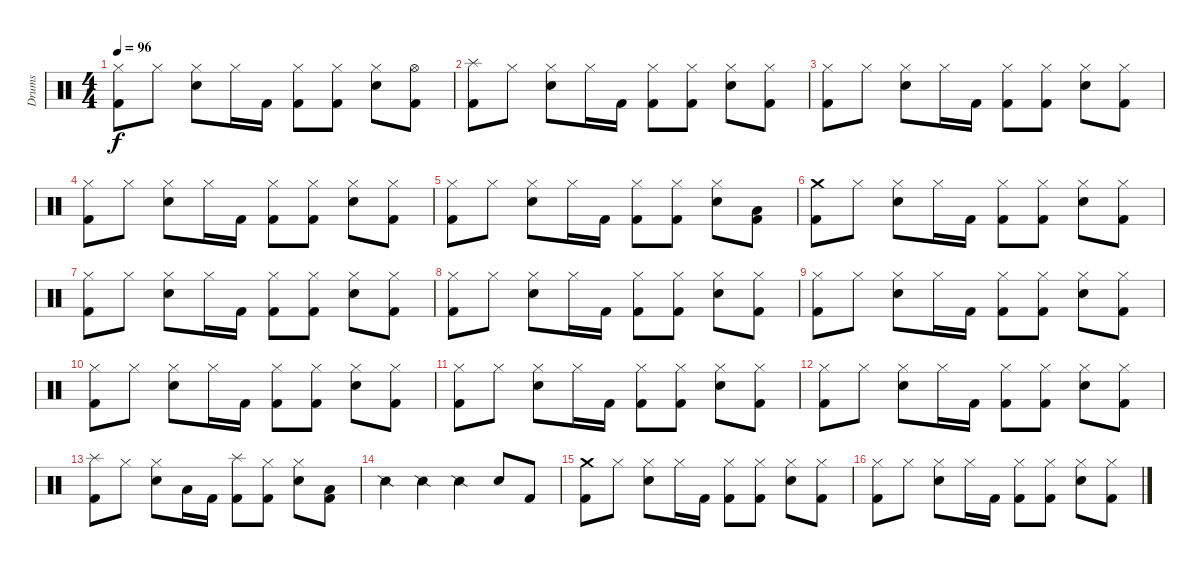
\track ("Drums" "Drums") {instrument percussion}
\staff {score}
\articulation defaults
\ts (4 4)
\tempo 96
\clef neutral
\ks c
("Hi-Hat (closed)" "Kick (hit) 2").8{dy f} "Hi-Hat (closed)".8 ("Hi-Hat (closed)" "Snare (hit) 2").8 "Hi-Hat (closed)".16 "Kick (hit) 2".16 ("Hi-Hat (closed)" "Kick (hit) 2").8 ("Hi-Hat (closed)" "Kick (hit) 2").8 ("Hi-Hat (closed)" "Snare (hit) 2").8 ("Hi-Hat (open)" "Kick (hit) 2").8 |
("Splash (hit)" "Kick (hit) 2").8 "Hi-Hat (closed)".8 ("Hi-Hat (closed)" "Snare (hit) 2").8 "Hi-Hat (closed)".16 "Kick (hit) 2".16 ("Hi-Hat (closed)" "Kick (hit) 2").8 ("Hi-Hat (closed)" "Kick (hit) 2").8 ("Hi-Hat (closed)" "Snare (hit) 2").8 ("Hi-Hat (closed)" "Kick (hit) 2").8 |
("Hi-Hat (closed)" "Kick (hit) 2").8 "Hi-Hat (closed)".8 ("Hi-Hat (closed)" "Snare (hit) 2").8 "Hi-Hat (closed)".16 "Kick (hit) 2".16 ("Hi-Hat (closed)" "Kick (hit) 2").8 ("Hi-Hat (closed)" "Kick (hit) 2").8 ("Hi-Hat (closed)" "Snare (hit) 2").8 ("Hi-Hat (closed)" "Kick (hit) 2").8 |
("Hi-Hat (closed)" "Kick (hit) 2").8 "Hi-Hat (closed)".8 ("Hi-Hat (closed)" "Snare (hit) 2").8 "Hi-Hat (closed)".16 "Kick (hit) 2".16 ("Hi-Hat (closed)" "Kick (hit) 2").8 ("Hi-Hat (closed)" "Kick (hit) 2").8 ("Hi-Hat (closed)" "Snare (hit) 2").8 ("Hi-Hat (closed)" "Kick (hit) 2").8 |
("Hi-Hat (closed)" "Kick (hit) 2").8 "Hi-Hat (closed)".8 ("Hi-Hat (closed)" "Snare (hit) 2").8 "Hi-Hat (closed)".16 "Kick (hit) 2".16 ("Hi-Hat (closed)" "Kick (hit) 2").8 ("Hi-Hat (closed)" "Kick (hit) 2").8 ("Hi-Hat (closed)" "Snare (hit) 2").8 ("Low Tom (hit)" "Kick (hit) 2").8 |
("Crash medium (hit)" "Kick (hit) 2").8 "Hi-Hat (closed)".8 ("Hi-Hat (closed)" "Snare (hit) 2").8 "Hi-Hat (closed)".16 "Kick (hit) 2".16 ("Hi-Hat (closed)" "Kick (hit) 2").8 ("Hi-Hat (closed)" "Kick (hit) 2").8 ("Hi-Hat (closed)" "Snare (hit) 2").8 ("Hi-Hat (closed)" "Kick (hit) 2").8 |
("Hi-Hat (closed)" "Kick (hit) 2").8 "Hi-Hat (closed)".8 ("Hi-Hat (closed)" "Snare (hit) 2").8 "Hi-Hat (closed)".16 "Kick (hit) 2".16 ("Hi-Hat (closed)" "Kick (hit) 2").8 ("Hi-Hat (closed)" "Kick (hit) 2").8 ("Hi-Hat (closed)" "Snare (hit) 2").8 ("Hi-Hat (closed)" "Kick (hit) 2").8 |
("Hi-Hat (closed)" "Kick (hit) 2").8 "Hi-Hat (closed)".8 ("Hi-Hat (closed)" "Snare (hit) 2").8 "Hi-Hat (closed)".16 "Kick (hit) 2".16 ("Hi-Hat (closed)" "Kick (hit) 2").8 ("Hi-Hat (closed)" "Kick (hit) 2").8 ("Hi-Hat (closed)" "Snare (hit) 2").8 ("Hi-Hat (closed)" "Kick (hit) 2").8 |
("Hi-Hat (closed)" "Kick (hit) 2").8 "Hi-Hat (closed)".8 ("Hi-Hat (closed)" "Snare (hit) 2").8 "Hi-Hat (closed)".16 "Kick (hit) 2".16 ("Hi-Hat (closed)" "Kick (hit) 2").8 ("Hi-Hat (closed)" "Kick (hit) 2").8 ("Hi-Hat (closed)" "Snare (hit) 2").8 ("Hi-Hat (closed)" "Kick (hit) 2").8 |
("Hi-Hat (closed)" "Kick (hit) 2").8 "Hi-Hat (closed)".8 ("Hi-Hat (closed)" "Snare (hit) 2").8 "Hi-Hat (closed)".16 "Kick (hit) 2".16 ("Hi-Hat (closed)" "Kick (hit) 2").8 ("Hi-Hat (closed)" "Kick (hit) 2").8 ("Hi-Hat (closed)" "Snare (hit) 2").8 ("Hi-Hat (closed)" "Kick (hit) 2").8 |
("Hi-Hat (closed)" "Kick (hit) 2").8 "Hi-Hat (closed)".8 ("Hi-Hat (closed)" "Snare (hit) 2").8 "Hi-Hat (closed)".16 "Kick (hit) 2".16 ("Hi-Hat (closed)" "Kick (hit) 2").8 ("Hi-Hat (closed)" "Kick (hit) 2").8 ("Hi-Hat (closed)" "Snare (hit) 2").8 ("Hi-Hat (closed)" "Kick (hit) 2").8 |
("Hi-Hat (closed)" "Kick (hit) 2").8 "Hi-Hat (closed)".8 ("Hi-Hat (closed)" "Snare (hit) 2").8 "Hi-Hat (closed)".16 "Kick (hit) 2".16 ("Hi-Hat (closed)" "Kick (hit) 2").8 ("Hi-Hat (closed)" "Kick (hit) 2").8 ("Hi-Hat (closed)" "Snare (hit) 2").8 ("Hi-Hat (closed)" "Kick (hit) 2").8 |
("Splash (hit)" "Kick (hit) 2").8 "Hi-Hat (closed)".8 ("Hi-Hat (closed)" "Snare (hit) 2").8 "Low Tom (hit)".16 "Kick (hit) 2".16 ("Splash (hit)" "Kick (hit) 2").8 ("Hi-Hat (closed)" "Kick (hit) 2").8 ("Hi-Hat (closed)" "Snare (hit) 2").8 ("Low Tom (hit)" "Kick (hit) 2").8 |
"Snare (side stick) 2".4 "Snare (side stick) 2".4 "Snare (side stick) 2".4 "Snare (hit) 2".8 "Kick (hit) 2".8 |
("Crash medium (hit)" "Kick (hit) 2").8 "Hi-Hat (closed)".8 ("Hi-Hat (closed)" "Snare (hit) 2").8 "Hi-Hat (closed)".16 "Kick (hit) 2".16 ("Hi-Hat (closed)" "Kick (hit) 2").8 ("Hi-Hat (closed)" "Kick (hit) 2").8 ("Hi-Hat (closed)" "Snare (hit) 2").8 ("Hi-Hat (closed)" "Kick (hit) 2").8 |
("Hi-Hat (closed)" "Kick (hit) 2").8 "Hi-Hat (closed)".8 ("Hi-Hat (closed)" "Snare (hit) 2").8 "Hi-Hat (closed)".16 "Kick (hit) 2".16 ("Hi-Hat (closed)" "Kick (hit) 2").8 ("Hi-Hat (closed)" "Kick (hit) 2").8 ("Hi-Hat (closed)" "Snare (hit) 2").8 ("Hi-Hat (closed)" "Kick (hit) 2").8
